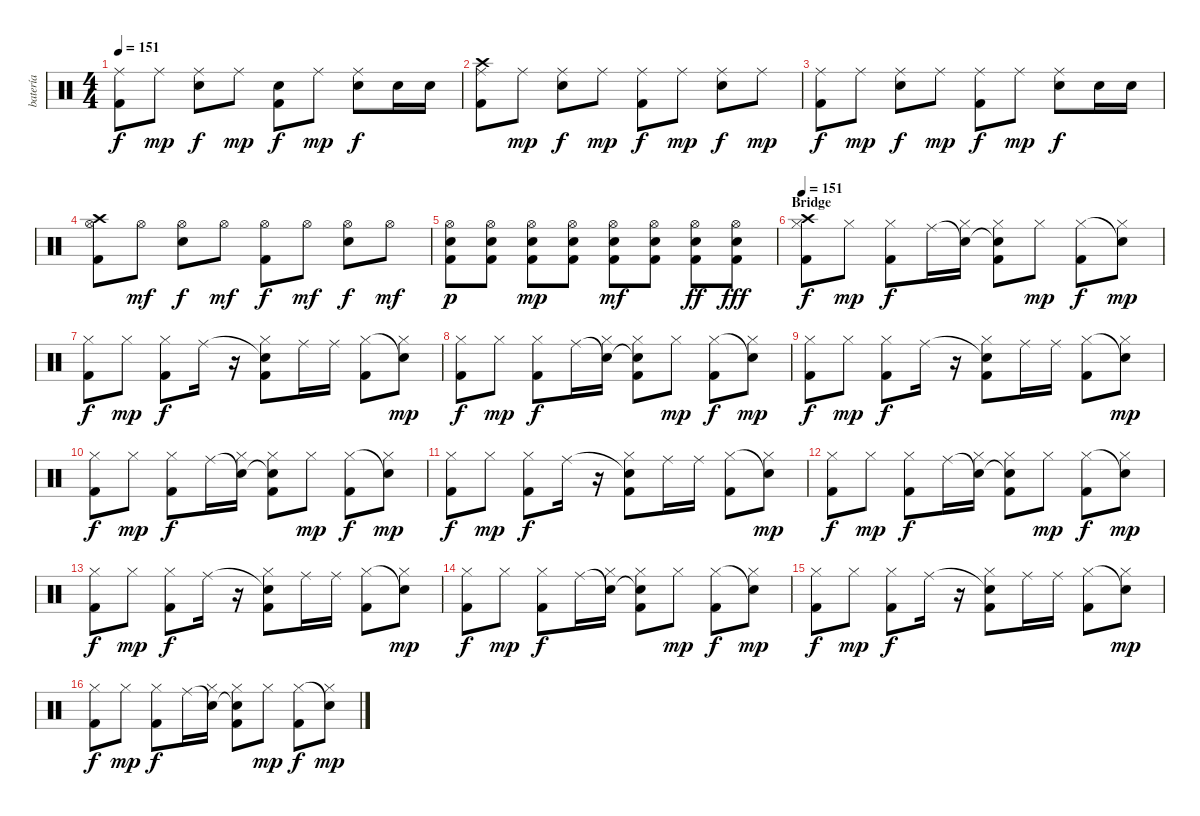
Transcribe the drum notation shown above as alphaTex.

\track ("batería" "batería") {instrument percussion}
\staff {score}
\articulation defaults
\ts (4 4)
\tempo 151
\clef neutral
\ks c
("Ride (middle)" "Kick (hit) 2").8{dy f} "Ride (middle)".8{dy mp} ("Ride (middle)" "Electric Snare (hit)").8{dy f} "Ride (middle)".8{dy mp} ("Snare (hit)" "Kick (hit) 2").8{dy f} "Ride (middle)".8{dy mp} ("Ride (middle)" "Electric Snare (hit)").8{dy f} "Electric Snare (hit)".16 "Electric Snare (hit)".16 |
("Crash high (hit)" "Ride (middle)" "Kick (hit) 2").8 "Ride (middle)".8{dy mp} ("Ride (middle)" "Electric Snare (hit)").8{dy f} "Ride (middle)".8{dy mp} ("Ride (middle)" "Kick (hit) 2").8{dy f} "Ride (middle)".8{dy mp} ("Ride (middle)" "Electric Snare (hit)").8{dy f} "Ride (middle)".8{dy mp} |
("Ride (middle)" "Kick (hit) 2").8{dy f} "Ride (middle)".8{dy mp} ("Ride (middle)" "Electric Snare (hit)").8{dy f} "Ride (middle)".8{dy mp} ("Ride (middle)" "Kick (hit) 2").8{dy f} "Ride (middle)".8{dy mp} ("Ride (middle)" "Electric Snare (hit)").8{dy f} "Electric Snare (hit)".16 "Electric Snare (hit)".16 |
("Crash high (hit)" "Hi-Hat (open)" "Kick (hit) 2").8 "Hi-Hat (open)".8{dy mf} ("Hi-Hat (open)" "Electric Snare (hit)").8{dy f} "Hi-Hat (open)".8{dy mf} ("Hi-Hat (open)" "Kick (hit) 2").8{dy f} "Hi-Hat (open)".8{dy mf} ("Hi-Hat (open)" "Electric Snare (hit)").8{dy f} "Hi-Hat (open)".8{dy mf} |
("Hi-Hat (open)" "Electric Snare (hit)" "Kick (hit) 2").8{dy p} ("Hi-Hat (open)" "Electric Snare (hit)" "Kick (hit) 2").8 ("Hi-Hat (open)" "Electric Snare (hit)" "Kick (hit) 2").8{dy mp} ("Hi-Hat (open)" "Electric Snare (hit)" "Kick (hit) 2").8 ("Hi-Hat (open)" "Electric Snare (hit)" "Kick (hit) 2").8{dy mf} ("Hi-Hat (open)" "Electric Snare (hit)" "Kick (hit) 2").8 ("Hi-Hat (open)" "Electric Snare (hit)" "Kick (hit) 2").8{dy ff} ("Hi-Hat (open)" "Electric Snare (hit)" "Kick (hit) 2").8{dy fff} |
\section ("" "Bridge")
\tempo 151
("Crash high (hit)" "Hi-Hat (closed)" "Kick (hit) 2").8{dy f} "Hi-Hat (closed)".8{dy mp} ("Hi-Hat (closed)" "Kick (hit) 2").8{dy f} "Ride (middle)".16 ("Snare (hit)"{t} "Hi-Hat (closed)").16 ("Snare (hit)"{t} "Hi-Hat (closed)" "Kick (hit) 2").8 "Hi-Hat (closed)".8{dy mp} ("Hi-Hat (closed)" "Kick (hit) 2").8{dy f} ("Snare (hit)"{t} "Hi-Hat (closed)").8{dy mp} |
("Hi-Hat (closed)" "Kick (hit) 2").8{dy f} "Hi-Hat (closed)".8{dy mp} ("Hi-Hat (closed)" "Kick (hit) 2").8{dy f} "Ride (middle)".16 r.16 ("Snare (hit)"{t} "Hi-Hat (closed)" "Kick (hit) 2").8 "Ride (middle)".16 "Ride (middle)".16 ("Hi-Hat (closed)" "Kick (hit) 2").8 ("Snare (hit)"{t} "Hi-Hat (closed)").8{dy mp} |
("Hi-Hat (closed)" "Kick (hit) 2").8{dy f} "Hi-Hat (closed)".8{dy mp} ("Hi-Hat (closed)" "Kick (hit) 2").8{dy f} "Ride (middle)".16 ("Snare (hit)"{t} "Hi-Hat (closed)").16 ("Snare (hit)"{t} "Hi-Hat (closed)" "Kick (hit) 2").8 "Hi-Hat (closed)".8{dy mp} ("Hi-Hat (closed)" "Kick (hit) 2").8{dy f} ("Snare (hit)"{t} "Hi-Hat (closed)").8{dy mp} |
("Hi-Hat (closed)" "Kick (hit) 2").8{dy f} "Hi-Hat (closed)".8{dy mp} ("Hi-Hat (closed)" "Kick (hit) 2").8{dy f} "Ride (middle)".16 r.16 ("Snare (hit)"{t} "Hi-Hat (closed)" "Kick (hit) 2").8 "Ride (middle)".16 "Ride (middle)".16 ("Hi-Hat (closed)" "Kick (hit) 2").8 ("Snare (hit)"{t} "Hi-Hat (closed)").8{dy mp} |
("Hi-Hat (closed)" "Kick (hit) 2").8{dy f} "Hi-Hat (closed)".8{dy mp} ("Hi-Hat (closed)" "Kick (hit) 2").8{dy f} "Ride (middle)".16 ("Snare (hit)"{t} "Hi-Hat (closed)").16 ("Snare (hit)"{t} "Hi-Hat (closed)" "Kick (hit) 2").8 "Hi-Hat (closed)".8{dy mp} ("Hi-Hat (closed)" "Kick (hit) 2").8{dy f} ("Snare (hit)"{t} "Hi-Hat (closed)").8{dy mp} |
("Hi-Hat (closed)" "Kick (hit) 2").8{dy f} "Hi-Hat (closed)".8{dy mp} ("Hi-Hat (closed)" "Kick (hit) 2").8{dy f} "Ride (middle)".16 r.16 ("Snare (hit)"{t} "Hi-Hat (closed)" "Kick (hit) 2").8 "Ride (middle)".16 "Ride (middle)".16 ("Hi-Hat (closed)" "Kick (hit) 2").8 ("Snare (hit)"{t} "Hi-Hat (closed)").8{dy mp} |
("Hi-Hat (closed)" "Kick (hit) 2").8{dy f} "Hi-Hat (closed)".8{dy mp} ("Hi-Hat (closed)" "Kick (hit) 2").8{dy f} "Ride (middle)".16 ("Snare (hit)"{t} "Hi-Hat (closed)").16 ("Snare (hit)"{t} "Hi-Hat (closed)" "Kick (hit) 2").8 "Hi-Hat (closed)".8{dy mp} ("Hi-Hat (closed)" "Kick (hit) 2").8{dy f} ("Snare (hit)"{t} "Hi-Hat (closed)").8{dy mp} |
("Hi-Hat (closed)" "Kick (hit) 2").8{dy f} "Hi-Hat (closed)".8{dy mp} ("Hi-Hat (closed)" "Kick (hit) 2").8{dy f} "Ride (middle)".16 r.16 ("Snare (hit)"{t} "Hi-Hat (closed)" "Kick (hit) 2").8 "Ride (middle)".16 "Ride (middle)".16 ("Hi-Hat (closed)" "Kick (hit) 2").8 ("Snare (hit)"{t} "Hi-Hat (closed)").8{dy mp} |
("Hi-Hat (closed)" "Kick (hit) 2").8{dy f} "Hi-Hat (closed)".8{dy mp} ("Hi-Hat (closed)" "Kick (hit) 2").8{dy f} "Ride (middle)".16 ("Snare (hit)"{t} "Hi-Hat (closed)").16 ("Snare (hit)"{t} "Hi-Hat (closed)" "Kick (hit) 2").8 "Hi-Hat (closed)".8{dy mp} ("Hi-Hat (closed)" "Kick (hit) 2").8{dy f} ("Snare (hit)"{t} "Hi-Hat (closed)").8{dy mp} |
("Hi-Hat (closed)" "Kick (hit) 2").8{dy f} "Hi-Hat (closed)".8{dy mp} ("Hi-Hat (closed)" "Kick (hit) 2").8{dy f} "Ride (middle)".16 r.16 ("Snare (hit)"{t} "Hi-Hat (closed)" "Kick (hit) 2").8 "Ride (middle)".16 "Ride (middle)".16 ("Hi-Hat (closed)" "Kick (hit) 2").8 ("Snare (hit)"{t} "Hi-Hat (closed)").8{dy mp} |
("Hi-Hat (closed)" "Kick (hit) 2").8{dy f} "Hi-Hat (closed)".8{dy mp} ("Hi-Hat (closed)" "Kick (hit) 2").8{dy f} "Ride (middle)".16 ("Snare (hit)"{t} "Hi-Hat (closed)").16 ("Snare (hit)"{t} "Hi-Hat (closed)" "Kick (hit) 2").8 "Hi-Hat (closed)".8{dy mp} ("Hi-Hat (closed)" "Kick (hit) 2").8{dy f} ("Snare (hit)"{t} "Hi-Hat (closed)").8{dy mp}
